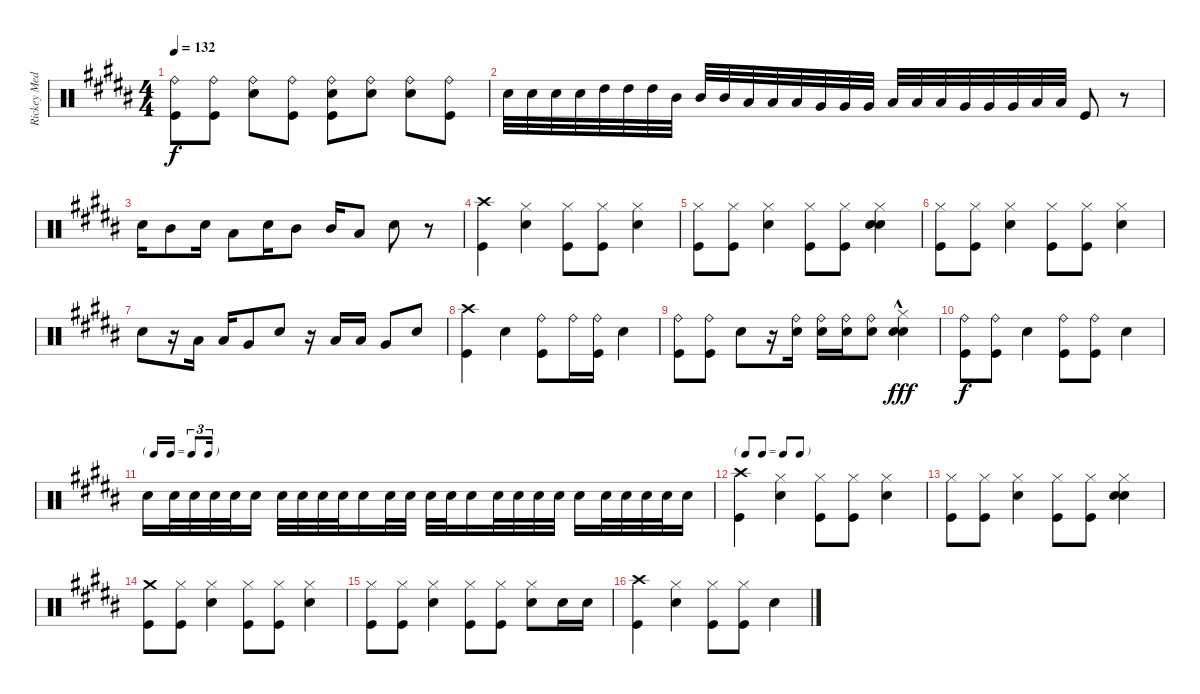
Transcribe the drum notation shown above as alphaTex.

\track ("Rickey Medlocke Drums" "Rickey Med") {instrument percussion}
\staff {score}
\articulation defaults
\ts (4 4)
\tempo 132
\clef neutral
\ks b
("Ride (bell)" "Kick (hit)").8{dy f} ("Ride (bell)" "Kick (hit)").8 ("Ride (bell)" "Snare (hit) 2").8 ("Ride (bell)" "Kick (hit)").8 ("Ride (bell)" "Snare (hit) 2" "Kick (hit)").8 ("Ride (bell)" "Snare (hit) 2").8 ("Ride (bell)" "Snare (hit) 2").8 ("Ride (bell)" "Kick (hit)").8 |
"Snare (hit) 2".32 "Snare (hit) 2".32 "Snare (hit) 2".32 "Snare (hit) 2".32 "High Tom (hit)".32 "High Tom (hit)".32 "High Tom (hit)".32 "Mid Tom (hit)".32 "Mid Tom (hit)".32 "Mid Tom (hit)".32 "Low Tom (hit)".32 "Low Tom (hit)".32 "Low Tom (hit)".32 "Very Low Tom (hit)".32 "Very Low Tom (hit)".32 "Very Low Tom (hit)".32 "Low Floor Tom (hit)".32 "Low Floor Tom (hit)".32 "Low Floor Tom (hit)".32 "Very Low Tom (hit)".32 "Very Low Tom (hit)".32 "Very Low Tom (hit)".32 "Low Floor Tom (hit)".32 "Low Floor Tom (hit)".32 "Kick (hit)".8 r.8 |
"Snare (hit) 2".16 "Mid Tom (hit)".8 "Snare (hit) 2".16 "Low Tom (hit)".8 "Snare (hit) 2".16 "Mid Tom (hit)".8 "Mid Tom (hit)".16 "Low Tom (hit)".8 "Snare (hit) 2".8 r.8 |
("Crash high (hit)" "Kick (hit)").4 ("Hi-Hat (closed)" "Snare (hit) 2").4 ("Hi-Hat (closed)" "Kick (hit)").8 ("Hi-Hat (closed)" "Kick (hit)").8 ("Hi-Hat (closed)" "Snare (hit) 2").4 |
("Hi-Hat (closed)" "Kick (hit)").8 ("Hi-Hat (closed)" "Kick (hit)").8 ("Hi-Hat (closed)" "Snare (hit) 2").4 ("Hi-Hat (closed)" "Kick (hit)").8 ("Hi-Hat (closed)" "Kick (hit)").8 ("Hi-Hat (closed)" "Snare (hit) 2" "Hand Clap (hit)").4 |
("Hi-Hat (closed)" "Kick (hit)").8 ("Hi-Hat (closed)" "Kick (hit)").8 ("Hi-Hat (closed)" "Snare (hit) 2").4 ("Hi-Hat (closed)" "Kick (hit)").8 ("Hi-Hat (closed)" "Kick (hit)").8 ("Hi-Hat (closed)" "Snare (hit) 2").4 |
"Snare (hit) 2".8 r.16 "Low Tom (hit)".16 "Low Tom (hit)".16 "Very Low Tom (hit)".8 "Snare (hit) 2".8 r.16 "Low Tom (hit)".16 "Low Tom (hit)".16 "Very Low Tom (hit)".8 "Snare (hit) 2".8 |
("Crash high (hit)" "Kick (hit)").4 "Snare (hit) 2".4 ("Ride (bell)" "Kick (hit)").8 "Ride (bell)".16 ("Ride (bell)" "Kick (hit)").16 "Snare (hit) 2".4 |
("Ride (bell)" "Kick (hit)").8 ("Ride (bell)" "Kick (hit)").8 "Snare (hit) 2".8 r.16 ("Ride (bell)" "Snare (hit) 2").16 ("Ride (bell)" "Snare (hit) 2").16 ("Ride (bell)" "Snare (hit) 2").16 ("Ride (bell)" "Snare (hit) 2").8 ("Hi-Hat (closed)" "Snare (hit) 2" "Hand Clap (hit)"{hac}).4{dy fff} |
("Ride (bell)" "Kick (hit)").8{dy f} ("Ride (bell)" "Kick (hit)").8 "Snare (hit) 2".4 ("Ride (bell)" "Kick (hit)").8 ("Ride (bell)" "Kick (hit)").8 "Snare (hit) 2".4 |
\tf triplet16th "Snare (hit) 2".16 "Snare (hit) 2".32 "Snare (hit) 2".32 "Snare (hit) 2".32 "Snare (hit) 2".32 "Snare (hit) 2".16 "Snare (hit) 2".32 "Snare (hit) 2".32 "Snare (hit) 2".32 "Snare (hit) 2".32 "Snare (hit) 2".16 "Snare (hit) 2".32 "Snare (hit) 2".32 "Snare (hit) 2".32 "Snare (hit) 2".32 "Snare (hit) 2".16 "Snare (hit) 2".32 "Snare (hit) 2".32 "Snare (hit) 2".32 "Snare (hit) 2".32 "Snare (hit) 2".16 "Snare (hit) 2".32 "Snare (hit) 2".32 "Snare (hit) 2".32 "Snare (hit) 2".32 "Snare (hit) 2".16
|
\tf none
("Crash high (hit)" "Kick (hit)").4 ("Hi-Hat (closed)" "Snare (hit) 2").4 ("Hi-Hat (closed)" "Kick (hit)").8 ("Hi-Hat (closed)" "Kick (hit)").8 ("Hi-Hat (closed)" "Snare (hit) 2").4 |
("Hi-Hat (closed)" "Kick (hit)").8 ("Hi-Hat (closed)" "Kick (hit)").8 ("Hi-Hat (closed)" "Snare (hit) 2").4 ("Hi-Hat (closed)" "Kick (hit)").8 ("Hi-Hat (closed)" "Kick (hit)").8 ("Hi-Hat (closed)" "Snare (hit) 2" "Hand Clap (hit)").4 |
("Crash medium (hit)" "Kick (hit)").8 ("Hi-Hat (closed)" "Kick (hit)").8 ("Hi-Hat (closed)" "Snare (hit) 2").4 ("Hi-Hat (closed)" "Kick (hit)").8 ("Hi-Hat (closed)" "Kick (hit)").8 ("Hi-Hat (closed)" "Snare (hit) 2").4 |
("Hi-Hat (closed)" "Kick (hit)").8 ("Hi-Hat (closed)" "Kick (hit)").8 ("Hi-Hat (closed)" "Snare (hit) 2").4 ("Hi-Hat (closed)" "Kick (hit)").8 ("Hi-Hat (closed)" "Kick (hit)").8 ("Hi-Hat (closed)" "Snare (hit) 2").8 "Snare (hit) 2".16 "Snare (hit) 2".16 |
("Crash high (hit)" "Kick (hit)").4 ("Hi-Hat (closed)" "Snare (hit) 2").4 ("Hi-Hat (closed)" "Kick (hit)").8 ("Hi-Hat (closed)" "Kick (hit)").8 "Snare (hit) 2".4
